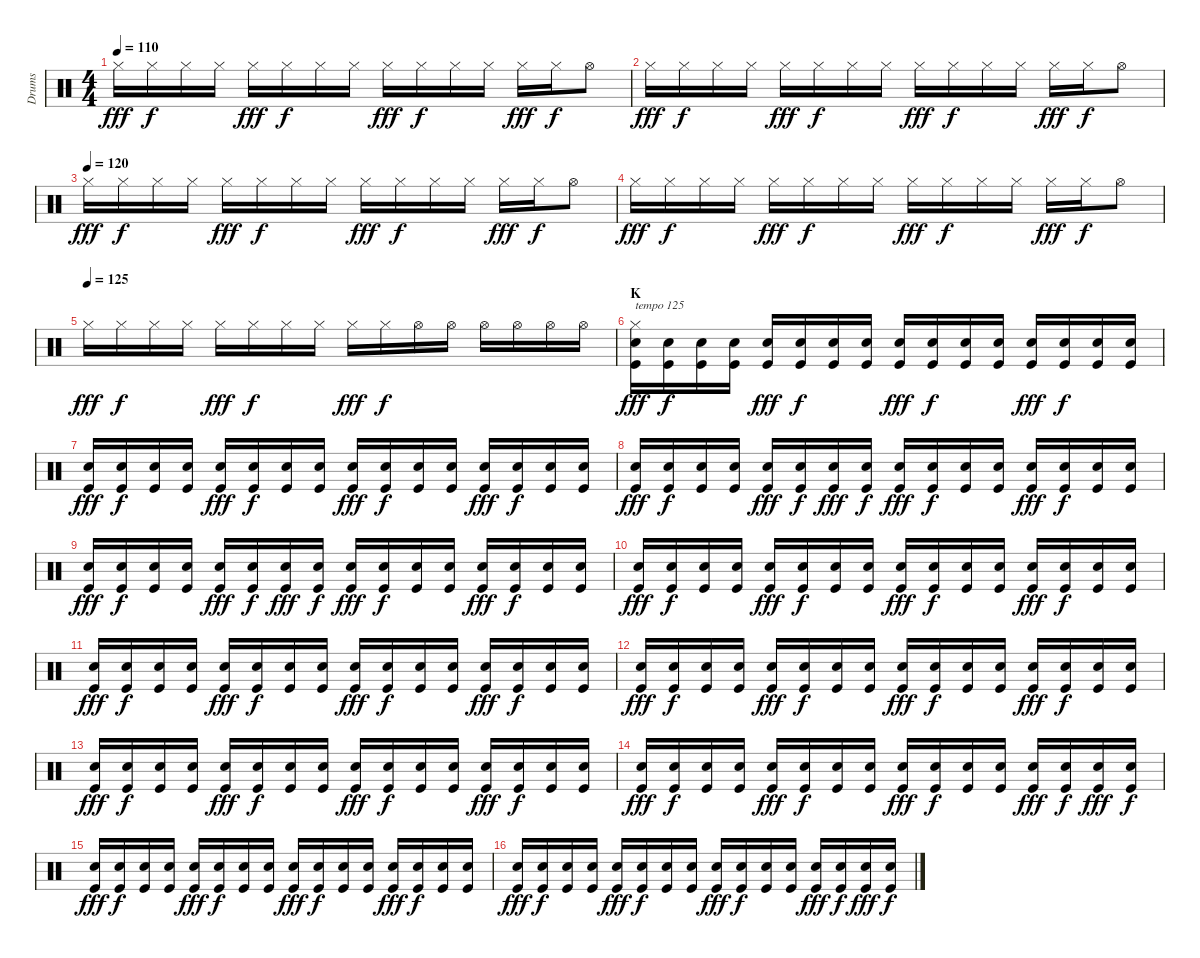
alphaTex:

\track ("Drums" "Drums") {instrument percussion}
\staff {score}
\articulation defaults
\ts (4 4)
\tempo 110
\clef neutral
\ks c "Hi-Hat (closed)".16{dy fff} "Hi-Hat (closed)".16{dy f} "Hi-Hat (closed)".16 "Hi-Hat (closed)".16 "Hi-Hat (closed)".16{dy fff} "Hi-Hat (closed)".16{dy f} "Hi-Hat (closed)".16 "Hi-Hat (closed)".16 "Hi-Hat (closed)".16{dy fff} "Hi-Hat (closed)".16{dy f} "Hi-Hat (closed)".16 "Hi-Hat (closed)".16 "Hi-Hat (closed)".16{dy fff} "Hi-Hat (closed)".16{dy f} "Hi-Hat (open)".8
|
"Hi-Hat (closed)".16{dy fff} "Hi-Hat (closed)".16{dy f} "Hi-Hat (closed)".16 "Hi-Hat (closed)".16 "Hi-Hat (closed)".16{dy fff} "Hi-Hat (closed)".16{dy f} "Hi-Hat (closed)".16 "Hi-Hat (closed)".16 "Hi-Hat (closed)".16{dy fff} "Hi-Hat (closed)".16{dy f} "Hi-Hat (closed)".16 "Hi-Hat (closed)".16 "Hi-Hat (closed)".16{dy fff} "Hi-Hat (closed)".16{dy f} "Hi-Hat (open)".8 |
\tempo (120)
"Hi-Hat (closed)".16{dy fff} "Hi-Hat (closed)".16{dy f} "Hi-Hat (closed)".16 "Hi-Hat (closed)".16 "Hi-Hat (closed)".16{dy fff} "Hi-Hat (closed)".16{dy f} "Hi-Hat (closed)".16 "Hi-Hat (closed)".16 "Hi-Hat (closed)".16{dy fff} "Hi-Hat (closed)".16{dy f} "Hi-Hat (closed)".16 "Hi-Hat (closed)".16 "Hi-Hat (closed)".16{dy fff} "Hi-Hat (closed)".16{dy f} "Hi-Hat (open)".8 |
"Hi-Hat (closed)".16{dy fff} "Hi-Hat (closed)".16{dy f} "Hi-Hat (closed)".16 "Hi-Hat (closed)".16 "Hi-Hat (closed)".16{dy fff} "Hi-Hat (closed)".16{dy f} "Hi-Hat (closed)".16 "Hi-Hat (closed)".16 "Hi-Hat (closed)".16{dy fff} "Hi-Hat (closed)".16{dy f} "Hi-Hat (closed)".16 "Hi-Hat (closed)".16 "Hi-Hat (closed)".16{dy fff} "Hi-Hat (closed)".16{dy f} "Hi-Hat (open)".8 |
\tempo (125)
"Hi-Hat (closed)".16{dy fff} "Hi-Hat (closed)".16{dy f} "Hi-Hat (closed)".16 "Hi-Hat (closed)".16 "Hi-Hat (closed)".16{dy fff} "Hi-Hat (closed)".16{dy f} "Hi-Hat (closed)".16 "Hi-Hat (closed)".16 "Hi-Hat (closed)".16{dy fff} "Hi-Hat (closed)".16{dy f} "Hi-Hat (open)".16 "Hi-Hat (open)".16 "Hi-Hat (open)".16 "Hi-Hat (open)".16 "Hi-Hat (open)".16 "Hi-Hat (open)".16 |
\section ("" "K")
("Hi-Hat (closed)" "Snare (hit) 2" "Kick (hit)").16{txt "tempo 125" dy fff} ("Snare (hit) 2" "Kick (hit)").16{dy f} ("Snare (hit) 2" "Kick (hit)").16 ("Snare (hit) 2" "Kick (hit)").16 ("Snare (hit) 2" "Kick (hit)").16{dy fff} ("Snare (hit) 2" "Kick (hit)").16{dy f} ("Snare (hit) 2" "Kick (hit)").16 ("Snare (hit) 2" "Kick (hit)").16 ("Snare (hit) 2" "Kick (hit)").16{dy fff} ("Snare (hit) 2" "Kick (hit)").16{dy f} ("Snare (hit) 2" "Kick (hit)").16 ("Snare (hit) 2" "Kick (hit)").16 ("Snare (hit) 2" "Kick (hit)").16{dy fff} ("Snare (hit) 2" "Kick (hit)").16{dy f} ("Snare (hit) 2" "Kick (hit)").16 ("Snare (hit) 2" "Kick (hit)").16 |
("Snare (hit) 2" "Kick (hit)").16{dy fff} ("Snare (hit) 2" "Kick (hit)").16{dy f} ("Snare (hit) 2" "Kick (hit)").16 ("Snare (hit) 2" "Kick (hit)").16 ("Snare (hit) 2" "Kick (hit)").16{dy fff} ("Snare (hit) 2" "Kick (hit)").16{dy f} ("Snare (hit) 2" "Kick (hit)").16 ("Snare (hit) 2" "Kick (hit)").16 ("Snare (hit) 2" "Kick (hit)").16{dy fff} ("Snare (hit) 2" "Kick (hit)").16{dy f} ("Snare (hit) 2" "Kick (hit)").16 ("Snare (hit) 2" "Kick (hit)").16 ("Snare (hit) 2" "Kick (hit)").16{dy fff} ("Snare (hit) 2" "Kick (hit)").16{dy f} ("Snare (hit) 2" "Kick (hit)").16 ("Snare (hit) 2" "Kick (hit)").16 |
("Snare (hit) 2" "Kick (hit)").16{dy fff} ("Snare (hit) 2" "Kick (hit)").16{dy f} ("Snare (hit) 2" "Kick (hit)").16 ("Snare (hit) 2" "Kick (hit)").16 ("Snare (hit) 2" "Kick (hit)").16{dy fff} ("Snare (hit) 2" "Kick (hit)").16{dy f} ("Snare (hit) 2" "Kick (hit)").16{dy fff} ("Snare (hit) 2" "Kick (hit)").16{dy f} ("Snare (hit) 2" "Kick (hit)").16{dy fff} ("Snare (hit) 2" "Kick (hit)").16{dy f} ("Snare (hit) 2" "Kick (hit)").16 ("Snare (hit) 2" "Kick (hit)").16 ("Snare (hit) 2" "Kick (hit)").16{dy fff} ("Snare (hit) 2" "Kick (hit)").16{dy f} ("Snare (hit) 2" "Kick (hit)").16 ("Snare (hit) 2" "Kick (hit)").16 |
("Snare (hit) 2" "Kick (hit)").16{dy fff} ("Snare (hit) 2" "Kick (hit)").16{dy f} ("Snare (hit) 2" "Kick (hit)").16 ("Snare (hit) 2" "Kick (hit)").16 ("Snare (hit) 2" "Kick (hit)").16{dy fff} ("Snare (hit) 2" "Kick (hit)").16{dy f} ("Snare (hit) 2" "Kick (hit)").16{dy fff} ("Snare (hit) 2" "Kick (hit)").16{dy f} ("Snare (hit) 2" "Kick (hit)").16{dy fff} ("Snare (hit) 2" "Kick (hit)").16{dy f} ("Snare (hit) 2" "Kick (hit)").16 ("Snare (hit) 2" "Kick (hit)").16 ("Snare (hit) 2" "Kick (hit)").16{dy fff} ("Snare (hit) 2" "Kick (hit)").16{dy f} ("Snare (hit) 2" "Kick (hit)").16 ("Snare (hit) 2" "Kick (hit)").16 |
("Snare (hit) 2" "Kick (hit)").16{dy fff} ("Snare (hit) 2" "Kick (hit)").16{dy f} ("Snare (hit) 2" "Kick (hit)").16 ("Snare (hit) 2" "Kick (hit)").16 ("Snare (hit) 2" "Kick (hit)").16{dy fff} ("Snare (hit) 2" "Kick (hit)").16{dy f} ("Snare (hit) 2" "Kick (hit)").16 ("Snare (hit) 2" "Kick (hit)").16 ("Snare (hit) 2" "Kick (hit)").16{dy fff} ("Snare (hit) 2" "Kick (hit)").16{dy f} ("Snare (hit) 2" "Kick (hit)").16 ("Snare (hit) 2" "Kick (hit)").16 ("Snare (hit) 2" "Kick (hit)").16{dy fff} ("Snare (hit) 2" "Kick (hit)").16{dy f} ("Snare (hit) 2" "Kick (hit)").16 ("Snare (hit) 2" "Kick (hit)").16 |
("Snare (hit) 2" "Kick (hit)").16{dy fff} ("Snare (hit) 2" "Kick (hit)").16{dy f} ("Snare (hit) 2" "Kick (hit)").16 ("Snare (hit) 2" "Kick (hit)").16 ("Snare (hit) 2" "Kick (hit)").16{dy fff} ("Snare (hit) 2" "Kick (hit)").16{dy f} ("Snare (hit) 2" "Kick (hit)").16 ("Snare (hit) 2" "Kick (hit)").16 ("Snare (hit) 2" "Kick (hit)").16{dy fff} ("Snare (hit) 2" "Kick (hit)").16{dy f} ("Snare (hit) 2" "Kick (hit)").16 ("Snare (hit) 2" "Kick (hit)").16 ("Snare (hit) 2" "Kick (hit)").16{dy fff} ("Snare (hit) 2" "Kick (hit)").16{dy f} ("Snare (hit) 2" "Kick (hit)").16 ("Snare (hit) 2" "Kick (hit)").16 |
("Snare (hit) 2" "Kick (hit)").16{dy fff} ("Snare (hit) 2" "Kick (hit)").16{dy f} ("Snare (hit) 2" "Kick (hit)").16 ("Snare (hit) 2" "Kick (hit)").16 ("Snare (hit) 2" "Kick (hit)").16{dy fff} ("Snare (hit) 2" "Kick (hit)").16{dy f} ("Snare (hit) 2" "Kick (hit)").16 ("Snare (hit) 2" "Kick (hit)").16 ("Snare (hit) 2" "Kick (hit)").16{dy fff} ("Snare (hit) 2" "Kick (hit)").16{dy f} ("Snare (hit) 2" "Kick (hit)").16 ("Snare (hit) 2" "Kick (hit)").16 ("Snare (hit) 2" "Kick (hit)").16{dy fff} ("Snare (hit) 2" "Kick (hit)").16{dy f} ("Snare (hit) 2" "Kick (hit)").16 ("Snare (hit) 2" "Kick (hit)").16 |
("Snare (hit) 2" "Kick (hit)").16{dy fff} ("Snare (hit) 2" "Kick (hit)").16{dy f} ("Snare (hit) 2" "Kick (hit)").16 ("Snare (hit) 2" "Kick (hit)").16 ("Snare (hit) 2" "Kick (hit)").16{dy fff} ("Snare (hit) 2" "Kick (hit)").16{dy f} ("Snare (hit) 2" "Kick (hit)").16 ("Snare (hit) 2" "Kick (hit)").16 ("Snare (hit) 2" "Kick (hit)").16{dy fff} ("Snare (hit) 2" "Kick (hit)").16{dy f} ("Snare (hit) 2" "Kick (hit)").16 ("Snare (hit) 2" "Kick (hit)").16 ("Snare (hit) 2" "Kick (hit)").16{dy fff} ("Snare (hit) 2" "Kick (hit)").16{dy f} ("Snare (hit) 2" "Kick (hit)").16 ("Snare (hit) 2" "Kick (hit)").16 |
("Snare (hit) 2" "Kick (hit)").16{dy fff} ("Snare (hit) 2" "Kick (hit)").16{dy f} ("Snare (hit) 2" "Kick (hit)").16 ("Snare (hit) 2" "Kick (hit)").16 ("Snare (hit) 2" "Kick (hit)").16{dy fff} ("Snare (hit) 2" "Kick (hit)").16{dy f} ("Snare (hit) 2" "Kick (hit)").16 ("Snare (hit) 2" "Kick (hit)").16 ("Snare (hit) 2" "Kick (hit)").16{dy fff} ("Snare (hit) 2" "Kick (hit)").16{dy f} ("Snare (hit) 2" "Kick (hit)").16 ("Snare (hit) 2" "Kick (hit)").16 ("Snare (hit) 2" "Kick (hit)").16{dy fff} ("Snare (hit) 2" "Kick (hit)").16{dy f} ("Snare (hit) 2" "Kick (hit)").16{dy fff} ("Snare (hit) 2" "Kick (hit)").16{dy f} |
("Snare (hit) 2" "Kick (hit)").16{dy fff} ("Snare (hit) 2" "Kick (hit)").16{dy f} ("Snare (hit) 2" "Kick (hit)").16 ("Snare (hit) 2" "Kick (hit)").16 ("Snare (hit) 2" "Kick (hit)").16{dy fff} ("Snare (hit) 2" "Kick (hit)").16{dy f} ("Snare (hit) 2" "Kick (hit)").16 ("Snare (hit) 2" "Kick (hit)").16 ("Snare (hit) 2" "Kick (hit)").16{dy fff} ("Snare (hit) 2" "Kick (hit)").16{dy f} ("Snare (hit) 2" "Kick (hit)").16 ("Snare (hit) 2" "Kick (hit)").16 ("Snare (hit) 2" "Kick (hit)").16{dy fff} ("Snare (hit) 2" "Kick (hit)").16{dy f} ("Snare (hit) 2" "Kick (hit)").16 ("Snare (hit) 2" "Kick (hit)").16 |
("Snare (hit) 2" "Kick (hit)").16{dy fff} ("Snare (hit) 2" "Kick (hit)").16{dy f} ("Snare (hit) 2" "Kick (hit)").16 ("Snare (hit) 2" "Kick (hit)").16 ("Snare (hit) 2" "Kick (hit)").16{dy fff} ("Snare (hit) 2" "Kick (hit)").16{dy f} ("Snare (hit) 2" "Kick (hit)").16 ("Snare (hit) 2" "Kick (hit)").16 ("Snare (hit) 2" "Kick (hit)").16{dy fff} ("Snare (hit) 2" "Kick (hit)").16{dy f} ("Snare (hit) 2" "Kick (hit)").16 ("Snare (hit) 2" "Kick (hit)").16 ("Snare (hit) 2" "Kick (hit)").16{dy fff} ("Snare (hit) 2" "Kick (hit)").16{dy f} ("Snare (hit) 2" "Kick (hit)").16{dy fff} ("Snare (hit) 2" "Kick (hit)").16{dy f}
